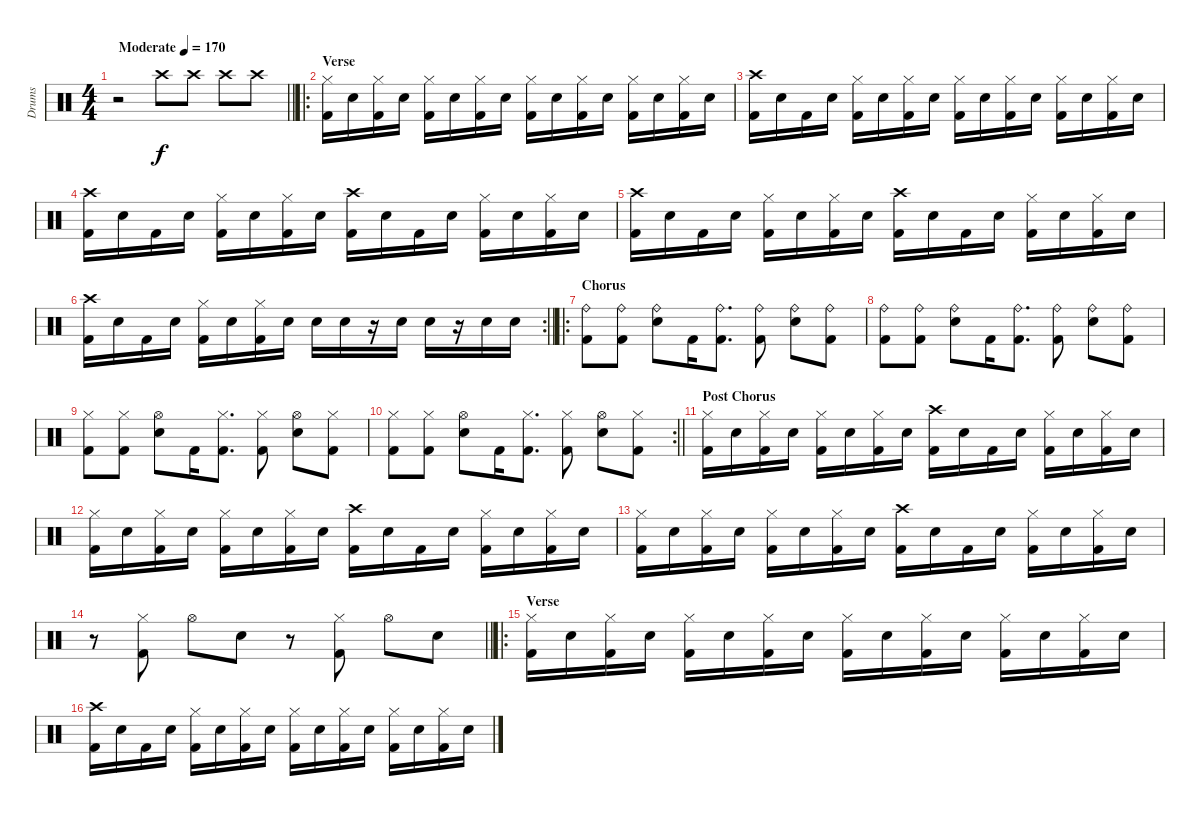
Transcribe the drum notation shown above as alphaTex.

\track ("Drums" "Drums") {instrument percussion}
\staff {score}
\articulation defaults
\ts (4 4)
\tempo (170 "Moderate")
\clef neutral
\barLineRight lightlight
\ks c
r.2{dy f} "Crash high (hit)".8 "Crash high (hit)".8 "Crash high (hit)".8 "Crash high (hit)".8 |
\ro
\section ("" "Verse")
("Hi-Hat (closed)" "Kick (hit) 2").16 "Electric Snare (hit)".16 ("Hi-Hat (closed)" "Kick (hit) 2").16 "Electric Snare (hit)".16 ("Hi-Hat (closed)" "Kick (hit) 2").16 "Electric Snare (hit)".16 ("Hi-Hat (closed)" "Kick (hit) 2").16 "Electric Snare (hit)".16 ("Hi-Hat (closed)" "Kick (hit) 2").16 "Electric Snare (hit)".16 ("Hi-Hat (closed)" "Kick (hit) 2").16 "Electric Snare (hit)".16 ("Hi-Hat (closed)" "Kick (hit) 2").16 "Electric Snare (hit)".16 ("Hi-Hat (closed)" "Kick (hit) 2").16 "Electric Snare (hit)".16 |
("Crash high (hit)" "Kick (hit) 2").16 "Electric Snare (hit)".16 "Kick (hit) 2".16 "Electric Snare (hit)".16 ("Hi-Hat (closed)" "Kick (hit) 2").16 "Electric Snare (hit)".16 ("Hi-Hat (closed)" "Kick (hit) 2").16 "Electric Snare (hit)".16 ("Hi-Hat (closed)" "Kick (hit) 2").16 "Electric Snare (hit)".16 ("Hi-Hat (closed)" "Kick (hit) 2").16 "Electric Snare (hit)".16 ("Hi-Hat (closed)" "Kick (hit) 2").16 "Electric Snare (hit)".16 ("Hi-Hat (closed)" "Kick (hit) 2").16 "Electric Snare (hit)".16 |
("Crash high (hit)" "Kick (hit) 2").16 "Electric Snare (hit)".16 "Kick (hit) 2".16 "Electric Snare (hit)".16 ("Hi-Hat (closed)" "Kick (hit) 2").16 "Electric Snare (hit)".16 ("Hi-Hat (closed)" "Kick (hit) 2").16 "Electric Snare (hit)".16 ("Crash high (hit)" "Kick (hit) 2").16 "Electric Snare (hit)".16 "Kick (hit) 2".16 "Electric Snare (hit)".16 ("Hi-Hat (closed)" "Kick (hit) 2").16 "Electric Snare (hit)".16 ("Hi-Hat (closed)" "Kick (hit) 2").16 "Electric Snare (hit)".16 |
("Crash high (hit)" "Kick (hit) 2").16 "Electric Snare (hit)".16 "Kick (hit) 2".16 "Electric Snare (hit)".16 ("Hi-Hat (closed)" "Kick (hit) 2").16 "Electric Snare (hit)".16 ("Hi-Hat (closed)" "Kick (hit) 2").16 "Electric Snare (hit)".16 ("Crash high (hit)" "Kick (hit) 2").16 "Electric Snare (hit)".16 "Kick (hit) 2".16 "Electric Snare (hit)".16 ("Hi-Hat (closed)" "Kick (hit) 2").16 "Electric Snare (hit)".16 ("Hi-Hat (closed)" "Kick (hit) 2").16 "Electric Snare (hit)".16 |
\rc 2
\barLineRight lightlight
("Crash high (hit)" "Kick (hit) 2").16 "Electric Snare (hit)".16 "Kick (hit) 2".16 "Electric Snare (hit)".16 ("Hi-Hat (closed)" "Kick (hit) 2").16 "Electric Snare (hit)".16 ("Hi-Hat (closed)" "Kick (hit) 2").16 "Electric Snare (hit)".16 "Electric Snare (hit)".16 "Electric Snare (hit)".16 r.16 "Electric Snare (hit)".16 "Electric Snare (hit)".16 r.16 "Electric Snare (hit)".16 "Electric Snare (hit)".16 |
\ro
\section ("" "Chorus")
("Ride (bell)" "Kick (hit) 2").8 ("Ride (bell)" "Kick (hit) 2").8 ("Ride (bell)" "Electric Snare (hit)").8 "Kick (hit) 2".16 ("Ride (bell)" "Kick (hit) 2").8{d} ("Ride (bell)" "Kick (hit) 2").8 ("Ride (bell)" "Electric Snare (hit)").8 ("Ride (bell)" "Kick (hit) 2").8 |
("Ride (bell)" "Kick (hit) 2").8 ("Ride (bell)" "Kick (hit) 2").8 ("Ride (bell)" "Electric Snare (hit)").8 "Kick (hit) 2".16 ("Ride (bell)" "Kick (hit) 2").8{d} ("Ride (bell)" "Kick (hit) 2").8 ("Ride (bell)" "Electric Snare (hit)").8 ("Ride (bell)" "Kick (hit) 2").8 |
("Hi-Hat (closed)" "Kick (hit) 2").8 ("Hi-Hat (closed)" "Kick (hit) 2").8 ("Hi-Hat (open)" "Electric Snare (hit)").8 "Kick (hit) 2".16 ("Hi-Hat (closed)" "Kick (hit) 2").8{d} ("Hi-Hat (closed)" "Kick (hit) 2").8 ("Hi-Hat (open)" "Electric Snare (hit)").8 ("Hi-Hat (closed)" "Kick (hit) 2").8 |
\rc 2
\barLineRight lightlight
("Hi-Hat (closed)" "Kick (hit) 2").8 ("Hi-Hat (closed)" "Kick (hit) 2").8 ("Hi-Hat (open)" "Electric Snare (hit)").8 "Kick (hit) 2".16 ("Hi-Hat (closed)" "Kick (hit) 2").8{d} ("Hi-Hat (closed)" "Kick (hit) 2").8 ("Hi-Hat (open)" "Electric Snare (hit)").8 ("Hi-Hat (closed)" "Kick (hit) 2").8 |
\section ("" "Post Chorus")
("Hi-Hat (closed)" "Kick (hit) 2").16 "Electric Snare (hit)".16 ("Hi-Hat (closed)" "Kick (hit) 2").16 "Electric Snare (hit)".16 ("Hi-Hat (closed)" "Kick (hit) 2").16 "Electric Snare (hit)".16 ("Hi-Hat (closed)" "Kick (hit) 2").16 "Electric Snare (hit)".16 ("Crash high (hit)" "Kick (hit) 2").16 "Electric Snare (hit)".16 "Kick (hit) 2".16 "Electric Snare (hit)".16 ("Hi-Hat (closed)" "Kick (hit) 2").16 "Electric Snare (hit)".16 ("Hi-Hat (closed)" "Kick (hit) 2").16 "Electric Snare (hit)".16 |
("Hi-Hat (closed)" "Kick (hit) 2").16 "Electric Snare (hit)".16 ("Hi-Hat (closed)" "Kick (hit) 2").16 "Electric Snare (hit)".16 ("Hi-Hat (closed)" "Kick (hit) 2").16 "Electric Snare (hit)".16 ("Hi-Hat (closed)" "Kick (hit) 2").16 "Electric Snare (hit)".16 ("Crash high (hit)" "Kick (hit) 2").16 "Electric Snare (hit)".16 "Kick (hit) 2".16 "Electric Snare (hit)".16 ("Hi-Hat (closed)" "Kick (hit) 2").16 "Electric Snare (hit)".16 ("Hi-Hat (closed)" "Kick (hit) 2").16 "Electric Snare (hit)".16 |
("Hi-Hat (closed)" "Kick (hit) 2").16 "Electric Snare (hit)".16 ("Hi-Hat (closed)" "Kick (hit) 2").16 "Electric Snare (hit)".16 ("Hi-Hat (closed)" "Kick (hit) 2").16 "Electric Snare (hit)".16 ("Hi-Hat (closed)" "Kick (hit) 2").16 "Electric Snare (hit)".16 ("Crash high (hit)" "Kick (hit) 2").16 "Electric Snare (hit)".16 "Kick (hit) 2".16 "Electric Snare (hit)".16 ("Hi-Hat (closed)" "Kick (hit) 2").16 "Electric Snare (hit)".16 ("Hi-Hat (closed)" "Kick (hit) 2").16 "Electric Snare (hit)".16 |
\barLineRight lightlight
r.8 ("Hi-Hat (closed)" "Kick (hit) 2").8 "Hi-Hat (open)".8 "Electric Snare (hit)".8 r.8 ("Hi-Hat (closed)" "Kick (hit) 2").8 "Hi-Hat (open)".8 "Electric Snare (hit)".8 |
\ro
\section ("" "Verse")
("Hi-Hat (closed)" "Kick (hit) 2").16 "Electric Snare (hit)".16 ("Hi-Hat (closed)" "Kick (hit) 2").16 "Electric Snare (hit)".16 ("Hi-Hat (closed)" "Kick (hit) 2").16 "Electric Snare (hit)".16 ("Hi-Hat (closed)" "Kick (hit) 2").16 "Electric Snare (hit)".16 ("Hi-Hat (closed)" "Kick (hit) 2").16 "Electric Snare (hit)".16 ("Hi-Hat (closed)" "Kick (hit) 2").16 "Electric Snare (hit)".16 ("Hi-Hat (closed)" "Kick (hit) 2").16 "Electric Snare (hit)".16 ("Hi-Hat (closed)" "Kick (hit) 2").16 "Electric Snare (hit)".16 |
("Crash high (hit)" "Kick (hit) 2").16 "Electric Snare (hit)".16 "Kick (hit) 2".16 "Electric Snare (hit)".16 ("Hi-Hat (closed)" "Kick (hit) 2").16 "Electric Snare (hit)".16 ("Hi-Hat (closed)" "Kick (hit) 2").16 "Electric Snare (hit)".16 ("Hi-Hat (closed)" "Kick (hit) 2").16 "Electric Snare (hit)".16 ("Hi-Hat (closed)" "Kick (hit) 2").16 "Electric Snare (hit)".16 ("Hi-Hat (closed)" "Kick (hit) 2").16 "Electric Snare (hit)".16 ("Hi-Hat (closed)" "Kick (hit) 2").16 "Electric Snare (hit)".16
